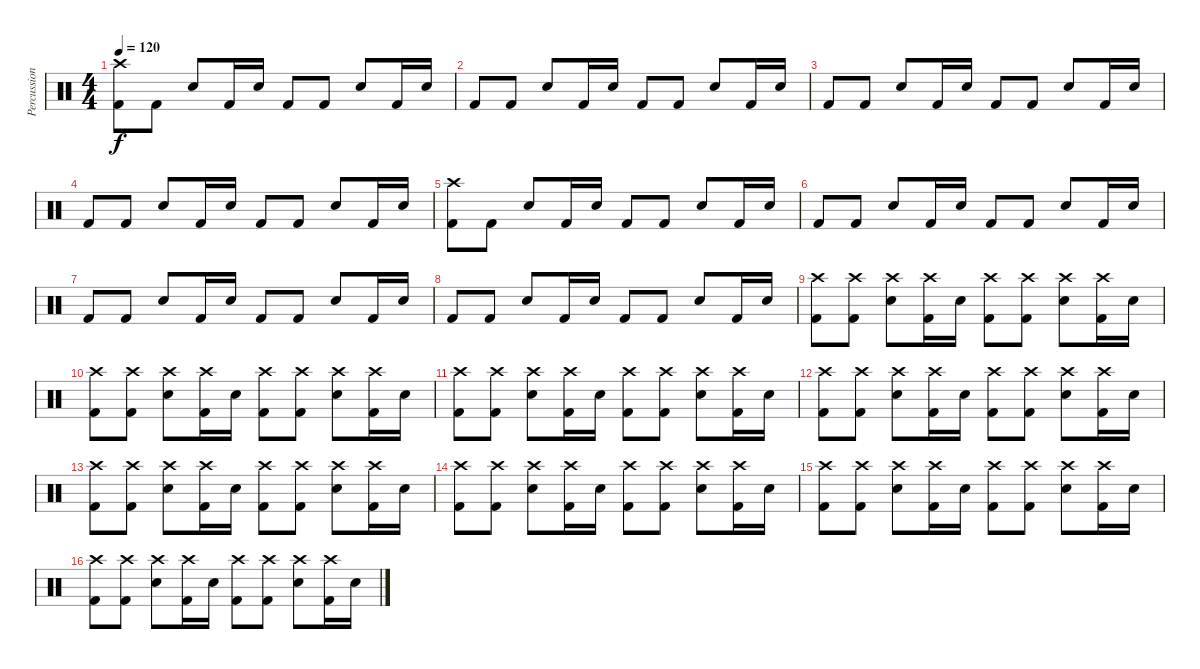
\track ("Percussion" "Percussion") {instrument percussion}
\staff {score}
\articulation defaults
\ts (4 4)
\tempo 120
\clef neutral
\ks c
("Crash high (hit)" "Kick (hit) 2").8{dy f} "Kick (hit) 2".8 "Electric Snare (hit)".8 "Kick (hit) 2".16 "Electric Snare (hit)".16 "Kick (hit) 2".8 "Kick (hit) 2".8 "Electric Snare (hit)".8 "Kick (hit) 2".16 "Electric Snare (hit)".16 |
"Kick (hit) 2".8 "Kick (hit) 2".8 "Electric Snare (hit)".8 "Kick (hit) 2".16 "Electric Snare (hit)".16 "Kick (hit) 2".8 "Kick (hit) 2".8 "Electric Snare (hit)".8 "Kick (hit) 2".16 "Electric Snare (hit)".16 |
"Kick (hit) 2".8 "Kick (hit) 2".8 "Electric Snare (hit)".8 "Kick (hit) 2".16 "Electric Snare (hit)".16 "Kick (hit) 2".8 "Kick (hit) 2".8 "Electric Snare (hit)".8 "Kick (hit) 2".16 "Electric Snare (hit)".16 |
"Kick (hit) 2".8 "Kick (hit) 2".8 "Electric Snare (hit)".8 "Kick (hit) 2".16 "Electric Snare (hit)".16 "Kick (hit) 2".8 "Kick (hit) 2".8 "Electric Snare (hit)".8 "Kick (hit) 2".16 "Electric Snare (hit)".16 |
("Crash high (hit)" "Kick (hit) 2").8 "Kick (hit) 2".8 "Electric Snare (hit)".8 "Kick (hit) 2".16 "Electric Snare (hit)".16 "Kick (hit) 2".8 "Kick (hit) 2".8 "Electric Snare (hit)".8 "Kick (hit) 2".16 "Electric Snare (hit)".16 |
"Kick (hit) 2".8 "Kick (hit) 2".8 "Electric Snare (hit)".8 "Kick (hit) 2".16 "Electric Snare (hit)".16 "Kick (hit) 2".8 "Kick (hit) 2".8 "Electric Snare (hit)".8 "Kick (hit) 2".16 "Electric Snare (hit)".16 |
"Kick (hit) 2".8 "Kick (hit) 2".8 "Electric Snare (hit)".8 "Kick (hit) 2".16 "Electric Snare (hit)".16 "Kick (hit) 2".8 "Kick (hit) 2".8 "Electric Snare (hit)".8 "Kick (hit) 2".16 "Electric Snare (hit)".16 |
"Kick (hit) 2".8 "Kick (hit) 2".8 "Electric Snare (hit)".8 "Kick (hit) 2".16 "Electric Snare (hit)".16 "Kick (hit) 2".8 "Kick (hit) 2".8 "Electric Snare (hit)".8 "Kick (hit) 2".16 "Electric Snare (hit)".16 |
("Crash high (hit)" "Kick (hit) 2").8 ("Crash high (hit)" "Kick (hit) 2").8 ("Crash high (hit)" "Electric Snare (hit)").8 ("Crash high (hit)" "Kick (hit) 2").16 "Electric Snare (hit)".16 ("Crash high (hit)" "Kick (hit) 2").8 ("Crash high (hit)" "Kick (hit) 2").8 ("Crash high (hit)" "Electric Snare (hit)").8 ("Crash high (hit)" "Kick (hit) 2").16 "Electric Snare (hit)".16 |
("Crash high (hit)" "Kick (hit) 2").8 ("Crash high (hit)" "Kick (hit) 2").8 ("Crash high (hit)" "Electric Snare (hit)").8 ("Crash high (hit)" "Kick (hit) 2").16 "Electric Snare (hit)".16 ("Crash high (hit)" "Kick (hit) 2").8 ("Crash high (hit)" "Kick (hit) 2").8 ("Crash high (hit)" "Electric Snare (hit)").8 ("Crash high (hit)" "Kick (hit) 2").16 "Electric Snare (hit)".16 |
("Crash high (hit)" "Kick (hit) 2").8 ("Crash high (hit)" "Kick (hit) 2").8 ("Crash high (hit)" "Electric Snare (hit)").8 ("Crash high (hit)" "Kick (hit) 2").16 "Electric Snare (hit)".16 ("Crash high (hit)" "Kick (hit) 2").8 ("Crash high (hit)" "Kick (hit) 2").8 ("Crash high (hit)" "Electric Snare (hit)").8 ("Crash high (hit)" "Kick (hit) 2").16 "Electric Snare (hit)".16 |
("Crash high (hit)" "Kick (hit) 2").8 ("Crash high (hit)" "Kick (hit) 2").8 ("Crash high (hit)" "Electric Snare (hit)").8 ("Crash high (hit)" "Kick (hit) 2").16 "Electric Snare (hit)".16 ("Crash high (hit)" "Kick (hit) 2").8 ("Crash high (hit)" "Kick (hit) 2").8 ("Crash high (hit)" "Electric Snare (hit)").8 ("Crash high (hit)" "Kick (hit) 2").16 "Electric Snare (hit)".16 |
("Crash high (hit)" "Kick (hit) 2").8 ("Crash high (hit)" "Kick (hit) 2").8 ("Crash high (hit)" "Electric Snare (hit)").8 ("Crash high (hit)" "Kick (hit) 2").16 "Electric Snare (hit)".16 ("Crash high (hit)" "Kick (hit) 2").8 ("Crash high (hit)" "Kick (hit) 2").8 ("Crash high (hit)" "Electric Snare (hit)").8 ("Crash high (hit)" "Kick (hit) 2").16 "Electric Snare (hit)".16 |
("Crash high (hit)" "Kick (hit) 2").8 ("Crash high (hit)" "Kick (hit) 2").8 ("Crash high (hit)" "Electric Snare (hit)").8 ("Crash high (hit)" "Kick (hit) 2").16 "Electric Snare (hit)".16 ("Crash high (hit)" "Kick (hit) 2").8 ("Crash high (hit)" "Kick (hit) 2").8 ("Crash high (hit)" "Electric Snare (hit)").8 ("Crash high (hit)" "Kick (hit) 2").16 "Electric Snare (hit)".16 |
("Crash high (hit)" "Kick (hit) 2").8 ("Crash high (hit)" "Kick (hit) 2").8 ("Crash high (hit)" "Electric Snare (hit)").8 ("Crash high (hit)" "Kick (hit) 2").16 "Electric Snare (hit)".16 ("Crash high (hit)" "Kick (hit) 2").8 ("Crash high (hit)" "Kick (hit) 2").8 ("Crash high (hit)" "Electric Snare (hit)").8 ("Crash high (hit)" "Kick (hit) 2").16 "Electric Snare (hit)".16 |
("Crash high (hit)" "Kick (hit) 2").8 ("Crash high (hit)" "Kick (hit) 2").8 ("Crash high (hit)" "Electric Snare (hit)").8 ("Crash high (hit)" "Kick (hit) 2").16 "Electric Snare (hit)".16 ("Crash high (hit)" "Kick (hit) 2").8 ("Crash high (hit)" "Kick (hit) 2").8 ("Crash high (hit)" "Electric Snare (hit)").8 ("Crash high (hit)" "Kick (hit) 2").16 "Electric Snare (hit)".16
